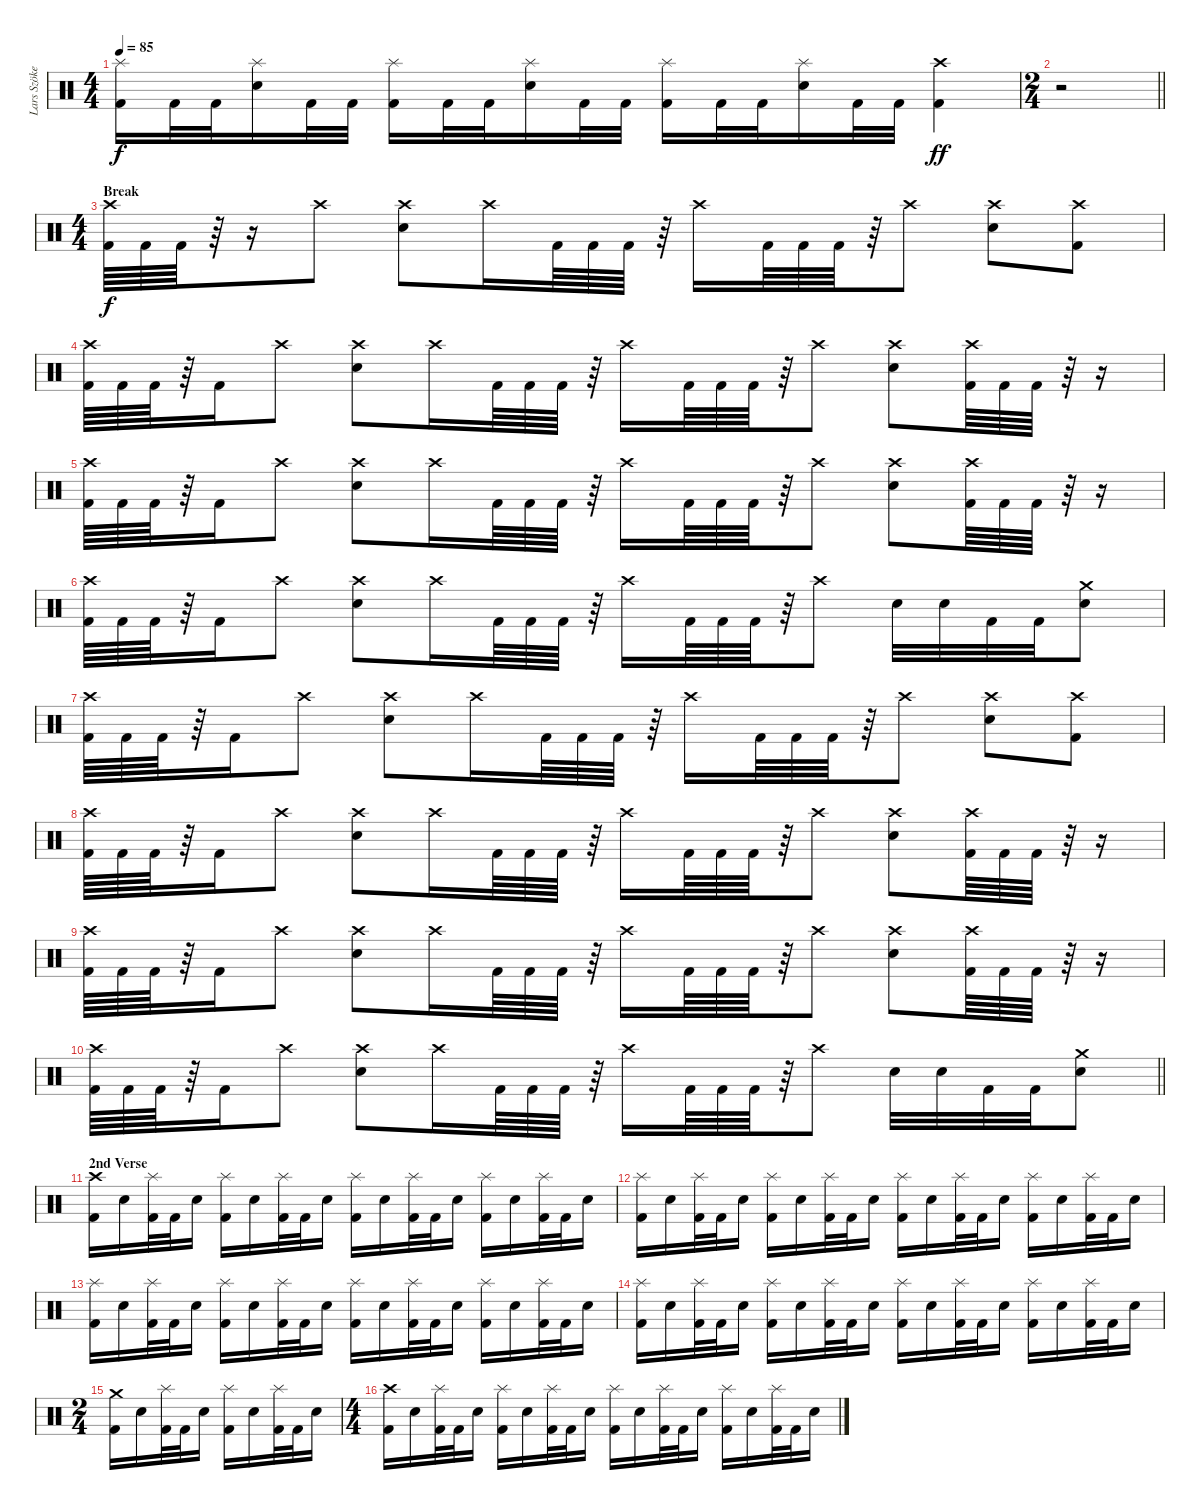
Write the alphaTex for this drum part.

\track ("Lars Szöke" "Lars Szöke") {instrument percussion}
\staff {score}
\articulation defaults
\ts (4 4)
\tempo 85
\clef neutral
\ks c
("Splash (hit)" "Kick (hit) 2").16{dy f} "Kick (hit) 2".32 "Kick (hit) 2".32 ("Splash (hit)" "Snare (hit) 2").16 "Kick (hit) 2".32 "Kick (hit) 2".32 ("Splash (hit)" "Kick (hit) 2").16 "Kick (hit) 2".32 "Kick (hit) 2".32 ("Splash (hit)" "Snare (hit) 2").16 "Kick (hit) 2".32 "Kick (hit) 2".32 ("Splash (hit)" "Kick (hit) 2").16 "Kick (hit) 2".32 "Kick (hit) 2".32 ("Splash (hit)" "Snare (hit) 2").16 "Kick (hit) 2".32 "Kick (hit) 2".32 ("Crash high (hit)" "Kick (hit) 2").4{dy ff} |
\ts (2 4)
\barLineRight lightlight
r.2 |
\ts (4 4)
\section ("" "Break")
("Crash high (hit)" "Kick (hit) 2").64{dy f} "Kick (hit) 2".64 "Kick (hit) 2".64 r.64 r.16 "Crash high (hit)".8 ("Crash high (hit)" "Snare (hit) 2").8 "Crash high (hit)".16 "Kick (hit) 2".64 "Kick (hit) 2".64 "Kick (hit) 2".64 r.64 "Crash high (hit)".16 "Kick (hit) 2".64 "Kick (hit) 2".64 "Kick (hit) 2".64 r.64 "Crash high (hit)".8 ("Crash high (hit)" "Snare (hit) 2").8 ("Crash high (hit)" "Kick (hit) 2").8 |
("Crash high (hit)" "Kick (hit) 2").64 "Kick (hit) 2".64 "Kick (hit) 2".64 r.64 "Kick (hit) 2".16 "Crash high (hit)".8 ("Crash high (hit)" "Snare (hit) 2").8 "Crash high (hit)".16 "Kick (hit) 2".64 "Kick (hit) 2".64 "Kick (hit) 2".64 r.64 "Crash high (hit)".16 "Kick (hit) 2".64 "Kick (hit) 2".64 "Kick (hit) 2".64 r.64 "Crash high (hit)".8 ("Crash high (hit)" "Snare (hit) 2").8 ("Crash high (hit)" "Kick (hit) 2").64 "Kick (hit) 2".64 "Kick (hit) 2".64 r.64 r.16 |
("Crash high (hit)" "Kick (hit) 2").64 "Kick (hit) 2".64 "Kick (hit) 2".64 r.64 "Kick (hit) 2".16 "Crash high (hit)".8 ("Crash high (hit)" "Snare (hit) 2").8 "Crash high (hit)".16 "Kick (hit) 2".64 "Kick (hit) 2".64 "Kick (hit) 2".64 r.64 "Crash high (hit)".16 "Kick (hit) 2".64 "Kick (hit) 2".64 "Kick (hit) 2".64 r.64 "Crash high (hit)".8 ("Crash high (hit)" "Snare (hit) 2").8 ("Crash high (hit)" "Kick (hit) 2").64 "Kick (hit) 2".64 "Kick (hit) 2".64 r.64 r.16 |
("Crash high (hit)" "Kick (hit) 2").64 "Kick (hit) 2".64 "Kick (hit) 2".64 r.64 "Kick (hit) 2".16 "Crash high (hit)".8 ("Crash high (hit)" "Snare (hit) 2").8 "Crash high (hit)".16 "Kick (hit) 2".64 "Kick (hit) 2".64 "Kick (hit) 2".64 r.64 "Crash high (hit)".16 "Kick (hit) 2".64 "Kick (hit) 2".64 "Kick (hit) 2".64 r.64 "Crash high (hit)".8 "Snare (hit) 2".32 "Snare (hit) 2".32 "Kick (hit) 2".32 "Kick (hit) 2".32 ("Crash medium (hit)" "Snare (hit) 2").8 |
("Crash high (hit)" "Kick (hit) 2").64 "Kick (hit) 2".64 "Kick (hit) 2".64 r.64 "Kick (hit) 2".16 "Crash high (hit)".8 ("Crash high (hit)" "Snare (hit) 2").8 "Crash high (hit)".16 "Kick (hit) 2".64 "Kick (hit) 2".64 "Kick (hit) 2".64 r.64 "Crash high (hit)".16 "Kick (hit) 2".64 "Kick (hit) 2".64 "Kick (hit) 2".64 r.64 "Crash high (hit)".8 ("Crash high (hit)" "Snare (hit) 2").8 ("Crash high (hit)" "Kick (hit) 2").8 |
("Crash high (hit)" "Kick (hit) 2").64 "Kick (hit) 2".64 "Kick (hit) 2".64 r.64 "Kick (hit) 2".16 "Crash high (hit)".8 ("Crash high (hit)" "Snare (hit) 2").8 "Crash high (hit)".16 "Kick (hit) 2".64 "Kick (hit) 2".64 "Kick (hit) 2".64 r.64 "Crash high (hit)".16 "Kick (hit) 2".64 "Kick (hit) 2".64 "Kick (hit) 2".64 r.64 "Crash high (hit)".8 ("Crash high (hit)" "Snare (hit) 2").8 ("Crash high (hit)" "Kick (hit) 2").64 "Kick (hit) 2".64 "Kick (hit) 2".64 r.64 r.16 |
("Crash high (hit)" "Kick (hit) 2").64 "Kick (hit) 2".64 "Kick (hit) 2".64 r.64 "Kick (hit) 2".16 "Crash high (hit)".8 ("Crash high (hit)" "Snare (hit) 2").8 "Crash high (hit)".16 "Kick (hit) 2".64 "Kick (hit) 2".64 "Kick (hit) 2".64 r.64 "Crash high (hit)".16 "Kick (hit) 2".64 "Kick (hit) 2".64 "Kick (hit) 2".64 r.64 "Crash high (hit)".8 ("Crash high (hit)" "Snare (hit) 2").8 ("Crash high (hit)" "Kick (hit) 2").64 "Kick (hit) 2".64 "Kick (hit) 2".64 r.64 r.16 |
\barLineRight lightlight
("Crash high (hit)" "Kick (hit) 2").64 "Kick (hit) 2".64 "Kick (hit) 2".64 r.64 "Kick (hit) 2".16 "Crash high (hit)".8 ("Crash high (hit)" "Snare (hit) 2").8 "Crash high (hit)".16 "Kick (hit) 2".64 "Kick (hit) 2".64 "Kick (hit) 2".64 r.64 "Crash high (hit)".16 "Kick (hit) 2".64 "Kick (hit) 2".64 "Kick (hit) 2".64 r.64 "Crash high (hit)".8 "Snare (hit) 2".32 "Snare (hit) 2".32 "Kick (hit) 2".32 "Kick (hit) 2".32 ("Crash medium (hit)" "Snare (hit) 2").8 |
\section ("" "2nd Verse")
("Crash high (hit)" "Kick (hit) 2").16 "Snare (hit) 2".16 ("Splash (hit)" "Kick (hit) 2").32 "Kick (hit) 2".32 "Snare (hit) 2".16 ("Splash (hit)" "Kick (hit) 2").16 "Snare (hit) 2".16 ("Splash (hit)" "Kick (hit) 2").32 "Kick (hit) 2".32 "Snare (hit) 2".16 ("Splash (hit)" "Kick (hit) 2").16 "Snare (hit) 2".16 ("Splash (hit)" "Kick (hit) 2").32 "Kick (hit) 2".32 "Snare (hit) 2".16 ("Splash (hit)" "Kick (hit) 2").16 "Snare (hit) 2".16 ("Splash (hit)" "Kick (hit) 2").32 "Kick (hit) 2".32 "Snare (hit) 2".16 |
("Splash (hit)" "Kick (hit) 2").16 "Snare (hit) 2".16 ("Splash (hit)" "Kick (hit) 2").32 "Kick (hit) 2".32 "Snare (hit) 2".16 ("Splash (hit)" "Kick (hit) 2").16 "Snare (hit) 2".16 ("Splash (hit)" "Kick (hit) 2").32 "Kick (hit) 2".32 "Snare (hit) 2".16 ("Splash (hit)" "Kick (hit) 2").16 "Snare (hit) 2".16 ("Splash (hit)" "Kick (hit) 2").32 "Kick (hit) 2".32 "Snare (hit) 2".16 ("Splash (hit)" "Kick (hit) 2").16 "Snare (hit) 2".16 ("Splash (hit)" "Kick (hit) 2").32 "Kick (hit) 2".32 "Snare (hit) 2".16 |
("Splash (hit)" "Kick (hit) 2").16 "Snare (hit) 2".16 ("Splash (hit)" "Kick (hit) 2").32 "Kick (hit) 2".32 "Snare (hit) 2".16 ("Splash (hit)" "Kick (hit) 2").16 "Snare (hit) 2".16 ("Splash (hit)" "Kick (hit) 2").32 "Kick (hit) 2".32 "Snare (hit) 2".16 ("Splash (hit)" "Kick (hit) 2").16 "Snare (hit) 2".16 ("Splash (hit)" "Kick (hit) 2").32 "Kick (hit) 2".32 "Snare (hit) 2".16 ("Splash (hit)" "Kick (hit) 2").16 "Snare (hit) 2".16 ("Splash (hit)" "Kick (hit) 2").32 "Kick (hit) 2".32 "Snare (hit) 2".16 |
("Splash (hit)" "Kick (hit) 2").16 "Snare (hit) 2".16 ("Splash (hit)" "Kick (hit) 2").32 "Kick (hit) 2".32 "Snare (hit) 2".16 ("Splash (hit)" "Kick (hit) 2").16 "Snare (hit) 2".16 ("Splash (hit)" "Kick (hit) 2").32 "Kick (hit) 2".32 "Snare (hit) 2".16 ("Splash (hit)" "Kick (hit) 2").16 "Snare (hit) 2".16 ("Splash (hit)" "Kick (hit) 2").32 "Kick (hit) 2".32 "Snare (hit) 2".16 ("Splash (hit)" "Kick (hit) 2").16 "Snare (hit) 2".16 ("Splash (hit)" "Kick (hit) 2").32 "Kick (hit) 2".32 "Snare (hit) 2".16 |
\ts (2 4)
("Crash medium (hit)" "Kick (hit) 2").16 "Snare (hit) 2".16 ("Splash (hit)" "Kick (hit) 2").32 "Kick (hit) 2".32 "Snare (hit) 2".16 ("Splash (hit)" "Kick (hit) 2").16 "Snare (hit) 2".16 ("Splash (hit)" "Kick (hit) 2").32 "Kick (hit) 2".32 "Snare (hit) 2".16 |
\ts (4 4)
("Crash high (hit)" "Kick (hit) 2").16 "Snare (hit) 2".16 ("Splash (hit)" "Kick (hit) 2").32 "Kick (hit) 2".32 "Snare (hit) 2".16 ("Splash (hit)" "Kick (hit) 2").16 "Snare (hit) 2".16 ("Splash (hit)" "Kick (hit) 2").32 "Kick (hit) 2".32 "Snare (hit) 2".16 ("Splash (hit)" "Kick (hit) 2").16 "Snare (hit) 2".16 ("Splash (hit)" "Kick (hit) 2").32 "Kick (hit) 2".32 "Snare (hit) 2".16 ("Splash (hit)" "Kick (hit) 2").16 "Snare (hit) 2".16 ("Splash (hit)" "Kick (hit) 2").32 "Kick (hit) 2".32 "Snare (hit) 2".16
